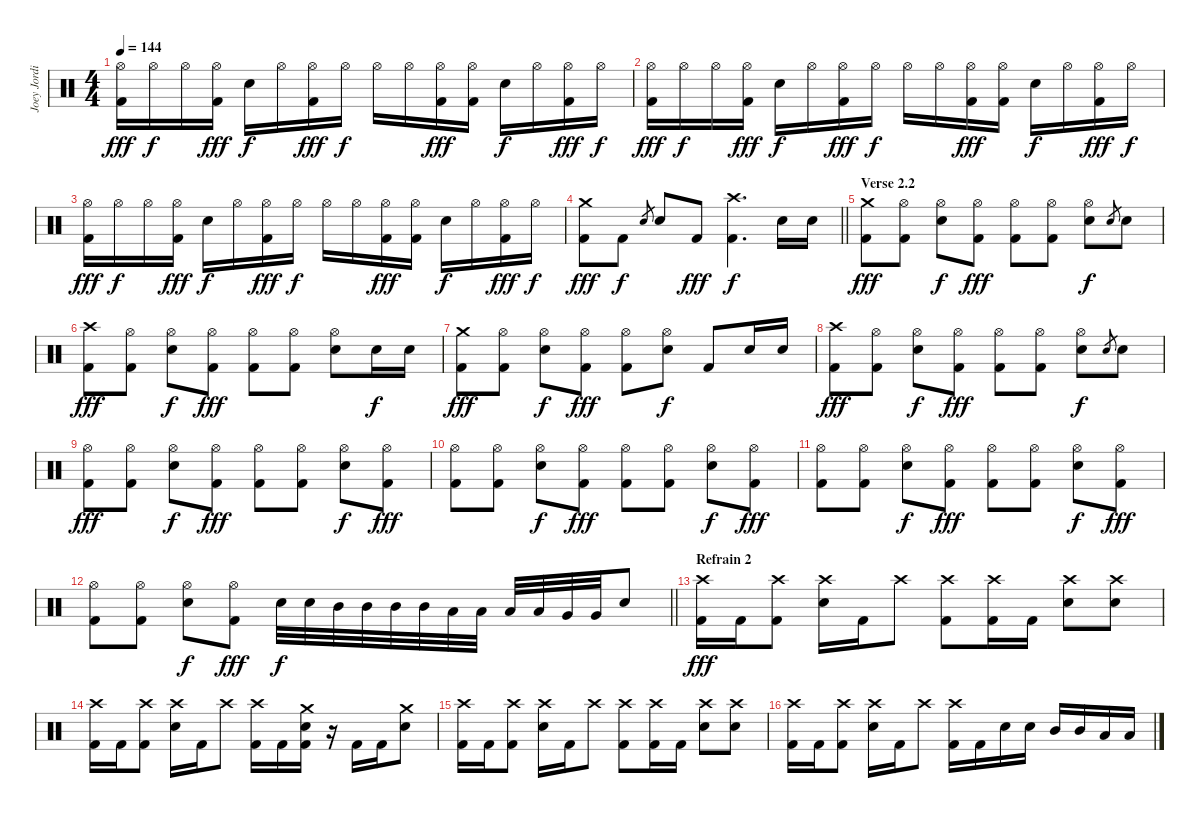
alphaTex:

\track ("Joey Jordison" "Joey Jordi") {instrument percussion}
\staff {score}
\articulation defaults
\ts (4 4)
\tempo 144
\clef neutral
\ks c
("Hi-Hat (open)" "Kick (hit) 2").16{dy fff} "Hi-Hat (open)".16{dy f} "Hi-Hat (open)".16 ("Hi-Hat (open)" "Kick (hit) 2").16{dy fff} "Electric Snare (hit)".16{dy f} "Hi-Hat (open)".16 ("Hi-Hat (open)" "Kick (hit) 2").16{dy fff} "Hi-Hat (open)".16{dy f} "Hi-Hat (open)".16 "Hi-Hat (open)".16 ("Hi-Hat (open)" "Kick (hit) 2").16{dy fff} ("Hi-Hat (open)" "Kick (hit) 2").16 "Electric Snare (hit)".16{dy f} "Hi-Hat (open)".16 ("Hi-Hat (open)" "Kick (hit) 2").16{dy fff} "Hi-Hat (open)".16{dy f} |
("Hi-Hat (open)" "Kick (hit) 2").16{dy fff} "Hi-Hat (open)".16{dy f} "Hi-Hat (open)".16 ("Hi-Hat (open)" "Kick (hit) 2").16{dy fff} "Electric Snare (hit)".16{dy f} "Hi-Hat (open)".16 ("Hi-Hat (open)" "Kick (hit) 2").16{dy fff} "Hi-Hat (open)".16{dy f} "Hi-Hat (open)".16 "Hi-Hat (open)".16 ("Hi-Hat (open)" "Kick (hit) 2").16{dy fff} ("Hi-Hat (open)" "Kick (hit) 2").16 "Electric Snare (hit)".16{dy f} "Hi-Hat (open)".16 ("Hi-Hat (open)" "Kick (hit) 2").16{dy fff} "Hi-Hat (open)".16{dy f} |
("Hi-Hat (open)" "Kick (hit) 2").16{dy fff} "Hi-Hat (open)".16{dy f} "Hi-Hat (open)".16 ("Hi-Hat (open)" "Kick (hit) 2").16{dy fff} "Electric Snare (hit)".16{dy f} "Hi-Hat (open)".16 ("Hi-Hat (open)" "Kick (hit) 2").16{dy fff} "Hi-Hat (open)".16{dy f} "Hi-Hat (open)".16 "Hi-Hat (open)".16 ("Hi-Hat (open)" "Kick (hit) 2").16{dy fff} ("Hi-Hat (open)" "Kick (hit) 2").16 "Electric Snare (hit)".16{dy f} "Hi-Hat (open)".16 ("Hi-Hat (open)" "Kick (hit) 2").16{dy fff} "Hi-Hat (open)".16{dy f} |
\barLineRight lightlight
("Crash medium (hit)" "Kick (hit) 2").8{dy fff} "Kick (hit) 2".8{dy f} "Electric Snare (hit)".8{gr} "Electric Snare (hit)".8 "Kick (hit) 2".8{dy fff} ("Crash high (hit)" "Kick (hit) 2").4{d dy f} "Electric Snare (hit)".16 "Electric Snare (hit)".16 |
\section ("" "Verse 2.2")
("Crash medium (hit)" "Kick (hit) 2").8{dy fff} ("Hi-Hat (open)" "Kick (hit) 2").8 ("Hi-Hat (open)" "Electric Snare (hit)").8{dy f} ("Hi-Hat (open)" "Kick (hit) 2").8{dy fff} ("Hi-Hat (open)" "Kick (hit) 2").8 ("Hi-Hat (open)" "Kick (hit) 2").8 ("Hi-Hat (open)" "Electric Snare (hit)").8{dy f} "Electric Snare (hit)".8{gr} "Electric Snare (hit)".8 |
("Crash high (hit)" "Kick (hit) 2").8{dy fff} ("Hi-Hat (open)" "Kick (hit) 2").8 ("Hi-Hat (open)" "Electric Snare (hit)").8{dy f} ("Hi-Hat (open)" "Kick (hit) 2").8{dy fff} ("Hi-Hat (open)" "Kick (hit) 2").8 ("Hi-Hat (open)" "Kick (hit) 2").8 ("Hi-Hat (open)" "Electric Snare (hit)").8 "Electric Snare (hit)".16{dy f} "Electric Snare (hit)".16 |
("Crash medium (hit)" "Kick (hit) 2").8{dy fff} ("Hi-Hat (open)" "Kick (hit) 2").8 ("Hi-Hat (open)" "Electric Snare (hit)").8{dy f} ("Hi-Hat (open)" "Kick (hit) 2").8{dy fff} ("Hi-Hat (open)" "Kick (hit) 2").8 ("Hi-Hat (open)" "Electric Snare (hit)").8{dy f} "Kick (hit) 2".8 "Electric Snare (hit)".16 "Electric Snare (hit)".16 |
("Crash high (hit)" "Kick (hit) 2").8{dy fff} ("Hi-Hat (open)" "Kick (hit) 2").8 ("Hi-Hat (open)" "Electric Snare (hit)").8{dy f} ("Hi-Hat (open)" "Kick (hit) 2").8{dy fff} ("Hi-Hat (open)" "Kick (hit) 2").8 ("Hi-Hat (open)" "Kick (hit) 2").8 ("Hi-Hat (open)" "Electric Snare (hit)").8{dy f} "Electric Snare (hit)".8{gr} "Electric Snare (hit)".8 |
("Hi-Hat (open)" "Kick (hit) 2").8{dy fff} ("Hi-Hat (open)" "Kick (hit) 2").8 ("Hi-Hat (open)" "Electric Snare (hit)").8{dy f} ("Hi-Hat (open)" "Kick (hit) 2").8{dy fff} ("Hi-Hat (open)" "Kick (hit) 2").8 ("Hi-Hat (open)" "Kick (hit) 2").8 ("Hi-Hat (open)" "Electric Snare (hit)").8{dy f} ("Hi-Hat (open)" "Kick (hit) 2").8{dy fff} |
("Hi-Hat (open)" "Kick (hit) 2").8 ("Hi-Hat (open)" "Kick (hit) 2").8 ("Hi-Hat (open)" "Electric Snare (hit)").8{dy f} ("Hi-Hat (open)" "Kick (hit) 2").8{dy fff} ("Hi-Hat (open)" "Kick (hit) 2").8 ("Hi-Hat (open)" "Kick (hit) 2").8 ("Hi-Hat (open)" "Electric Snare (hit)").8{dy f} ("Hi-Hat (open)" "Kick (hit) 2").8{dy fff} |
("Hi-Hat (open)" "Kick (hit) 2").8 ("Hi-Hat (open)" "Kick (hit) 2").8 ("Hi-Hat (open)" "Electric Snare (hit)").8{dy f} ("Hi-Hat (open)" "Kick (hit) 2").8{dy fff} ("Hi-Hat (open)" "Kick (hit) 2").8 ("Hi-Hat (open)" "Kick (hit) 2").8 ("Hi-Hat (open)" "Electric Snare (hit)").8{dy f} ("Hi-Hat (open)" "Kick (hit) 2").8{dy fff} |
\barLineRight lightlight
("Hi-Hat (open)" "Kick (hit) 2").8 ("Hi-Hat (open)" "Kick (hit) 2").8 ("Hi-Hat (open)" "Electric Snare (hit)").8{dy f} ("Hi-Hat (open)" "Kick (hit) 2").8{dy fff} "Electric Snare (hit)".32{dy f} "Electric Snare (hit)".32 "Mid Tom (hit)".32 "Mid Tom (hit)".32 "Mid Tom (hit)".32 "Mid Tom (hit)".32 "Low Tom (hit)".32 "Low Tom (hit)".32 "Low Tom (hit)".32 "Low Tom (hit)".32 "Very Low Tom (hit)".32 "Very Low Tom (hit)".32 "Electric Snare (hit)".8 |
\section ("" "Refrain 2")
("Crash high (hit)" "Kick (hit) 2").16{dy fff} "Kick (hit) 2".16 ("Crash high (hit)" "Kick (hit) 2").8 ("Crash high (hit)" "Electric Snare (hit)").16 "Kick (hit) 2".16 "Crash high (hit)".8 ("Crash high (hit)" "Kick (hit) 2").8 ("Crash high (hit)" "Kick (hit) 2").16 "Kick (hit) 2".16 ("Crash high (hit)" "Electric Snare (hit)").8 ("Crash high (hit)" "Electric Snare (hit)").8 |
("Crash high (hit)" "Kick (hit) 2").16 "Kick (hit) 2".16 ("Crash high (hit)" "Kick (hit) 2").8 ("Crash high (hit)" "Electric Snare (hit)").16 "Kick (hit) 2".16 "Crash high (hit)".8 ("Crash high (hit)" "Kick (hit) 2").16 "Kick (hit) 2".16 ("Crash medium (hit)" "Electric Snare (hit)" "Kick (hit) 2").16 r.16 "Kick (hit) 2".16 "Kick (hit) 2".16 ("Crash medium (hit)" "Electric Snare (hit)").8 |
("Crash high (hit)" "Kick (hit) 2").16 "Kick (hit) 2".16 ("Crash high (hit)" "Kick (hit) 2").8 ("Crash high (hit)" "Electric Snare (hit)").16 "Kick (hit) 2".16 "Crash high (hit)".8 ("Crash high (hit)" "Kick (hit) 2").8 ("Crash high (hit)" "Kick (hit) 2").16 "Kick (hit) 2".16 ("Crash high (hit)" "Electric Snare (hit)").8 ("Crash high (hit)" "Electric Snare (hit)").8 |
("Crash high (hit)" "Kick (hit) 2").16 "Kick (hit) 2".16 ("Crash high (hit)" "Kick (hit) 2").8 ("Crash high (hit)" "Electric Snare (hit)").16 "Kick (hit) 2".16 "Crash high (hit)".8 ("Crash high (hit)" "Kick (hit) 2").16 "Kick (hit) 2".16 "Electric Snare (hit)".16 "Electric Snare (hit)".16 "Mid Tom (hit)".16 "Mid Tom (hit)".16 "Low Tom (hit)".16 "Low Tom (hit)".16
